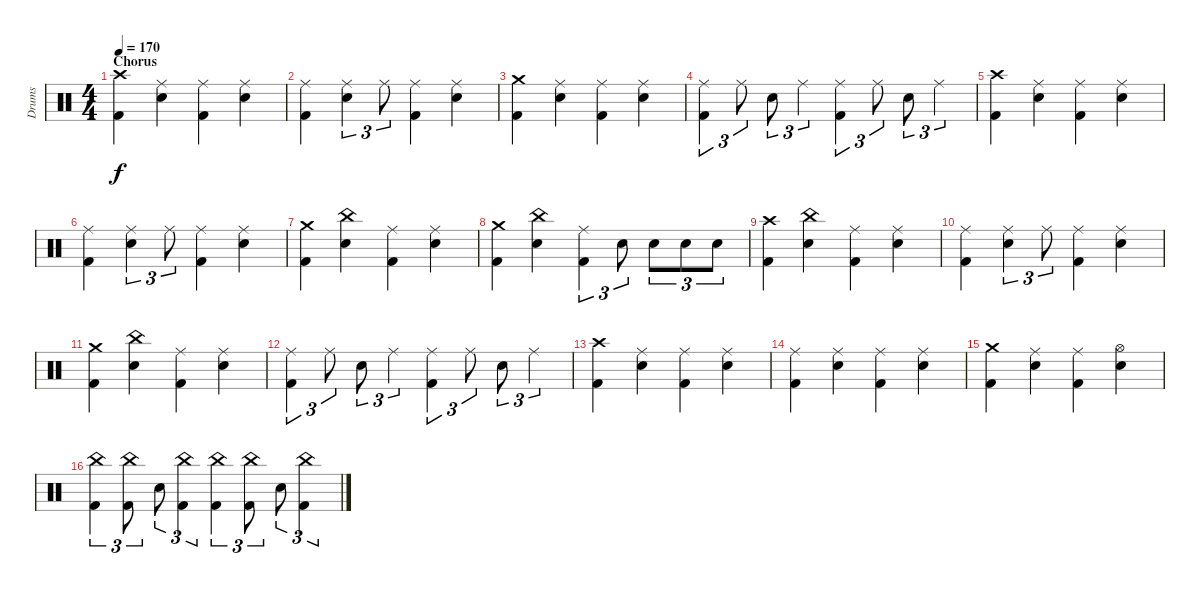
\track ("Drums" "Drums") {instrument percussion}
\staff {score}
\articulation defaults
\ts (4 4)
\section ("" "Chorus")
\tempo 170
\clef neutral
\ks c
("Crash high (hit)" "Kick (hit) 2").4{dy f} ("Ride (middle)" "Electric Snare (hit)").4 ("Ride (middle)" "Kick (hit) 2").4 ("Ride (middle)" "Electric Snare (hit)").4 |
("Ride (middle)" "Kick (hit) 2").4 ("Ride (middle)" "Electric Snare (hit)").4{tu (3 2)} "Ride (middle)".8{tu (3 2)} ("Ride (middle)" "Kick (hit) 2").4 ("Ride (middle)" "Electric Snare (hit)").4 |
("Crash medium (hit)" "Kick (hit) 2").4 ("Ride (middle)" "Electric Snare (hit)").4 ("Ride (middle)" "Kick (hit) 2").4 ("Ride (middle)" "Electric Snare (hit)").4 |
("Ride (middle)" "Kick (hit) 2").4{tu (3 2)} "Ride (middle)".8{tu (3 2)} "Electric Snare (hit)".8{tu (3 2)} "Ride (middle)".4{tu (3 2)} ("Ride (middle)" "Kick (hit) 2").4{tu (3 2)} "Ride (middle)".8{tu (3 2)} "Electric Snare (hit)".8{tu (3 2)} "Ride (middle)".4{tu (3 2)} |
("Crash high (hit)" "Kick (hit) 2").4 ("Ride (middle)" "Electric Snare (hit)").4 ("Ride (middle)" "Kick (hit) 2").4 ("Ride (middle)" "Electric Snare (hit)").4 |
("Ride (middle)" "Kick (hit) 2").4 ("Ride (middle)" "Electric Snare (hit)").4{tu (3 2)} "Ride (middle)".8{tu (3 2)} ("Ride (middle)" "Kick (hit) 2").4 ("Ride (middle)" "Electric Snare (hit)").4 |
("Crash medium (hit)" "Kick (hit) 2").4 ("China (hit)" "Electric Snare (hit)").4 ("Ride (middle)" "Kick (hit) 2").4 ("Ride (middle)" "Electric Snare (hit)").4 |
("Crash medium (hit)" "Kick (hit) 2").4 ("China (hit)" "Electric Snare (hit)").4 ("Ride (middle)" "Kick (hit) 2").4{tu (3 2)} "Electric Snare (hit)".8{tu (3 2)} "Electric Snare (hit)".8{tu (3 2)} "Electric Snare (hit)".8{tu (3 2)} "Electric Snare (hit)".8{tu (3 2)} |
("Crash high (hit)" "Kick (hit) 2").4 ("China (hit)" "Electric Snare (hit)").4 ("Ride (middle)" "Kick (hit) 2").4 ("Ride (middle)" "Electric Snare (hit)").4 |
("Ride (middle)" "Kick (hit) 2").4 ("Ride (middle)" "Electric Snare (hit)").4{tu (3 2)} "Ride (middle)".8{tu (3 2)} ("Ride (middle)" "Kick (hit) 2").4 ("Ride (middle)" "Electric Snare (hit)").4 |
("Crash medium (hit)" "Kick (hit) 2").4 ("China (hit)" "Electric Snare (hit)").4 ("Ride (middle)" "Kick (hit) 2").4 ("Ride (middle)" "Electric Snare (hit)").4 |
("Ride (middle)" "Kick (hit) 2").4{tu (3 2)} "Ride (middle)".8{tu (3 2)} "Electric Snare (hit)".8{tu (3 2)} "Ride (middle)".4{tu (3 2)} ("Ride (middle)" "Kick (hit) 2").4{tu (3 2)} "Ride (middle)".8{tu (3 2)} "Electric Snare (hit)".8{tu (3 2)} "Ride (middle)".4{tu (3 2)} |
("Crash high (hit)" "Kick (hit) 2").4 ("Ride (middle)" "Electric Snare (hit)").4 ("Ride (middle)" "Kick (hit) 2").4 ("Ride (middle)" "Electric Snare (hit)").4 |
("Ride (middle)" "Kick (hit) 2").4 ("Ride (middle)" "Electric Snare (hit)").4 ("Ride (middle)" "Kick (hit) 2").4 ("Ride (middle)" "Electric Snare (hit)").4 |
("Crash medium (hit)" "Kick (hit) 2").4 ("Ride (middle)" "Electric Snare (hit)").4 ("Ride (middle)" "Kick (hit) 2").4 ("Hi-Hat (open)" "Electric Snare (hit)").4 |
("China (hit)" "Kick (hit) 2").4{tu (3 2)} ("China (hit)" "Kick (hit) 2").8{tu (3 2)} "Electric Snare (hit)".8{tu (3 2)} ("China (hit)" "Kick (hit) 2").4{tu (3 2)} ("China (hit)" "Kick (hit) 2").4{tu (3 2)} ("China (hit)" "Kick (hit) 2").8{tu (3 2)} "Electric Snare (hit)".8{tu (3 2)} ("China (hit)" "Kick (hit) 2").4{tu (3 2)}
